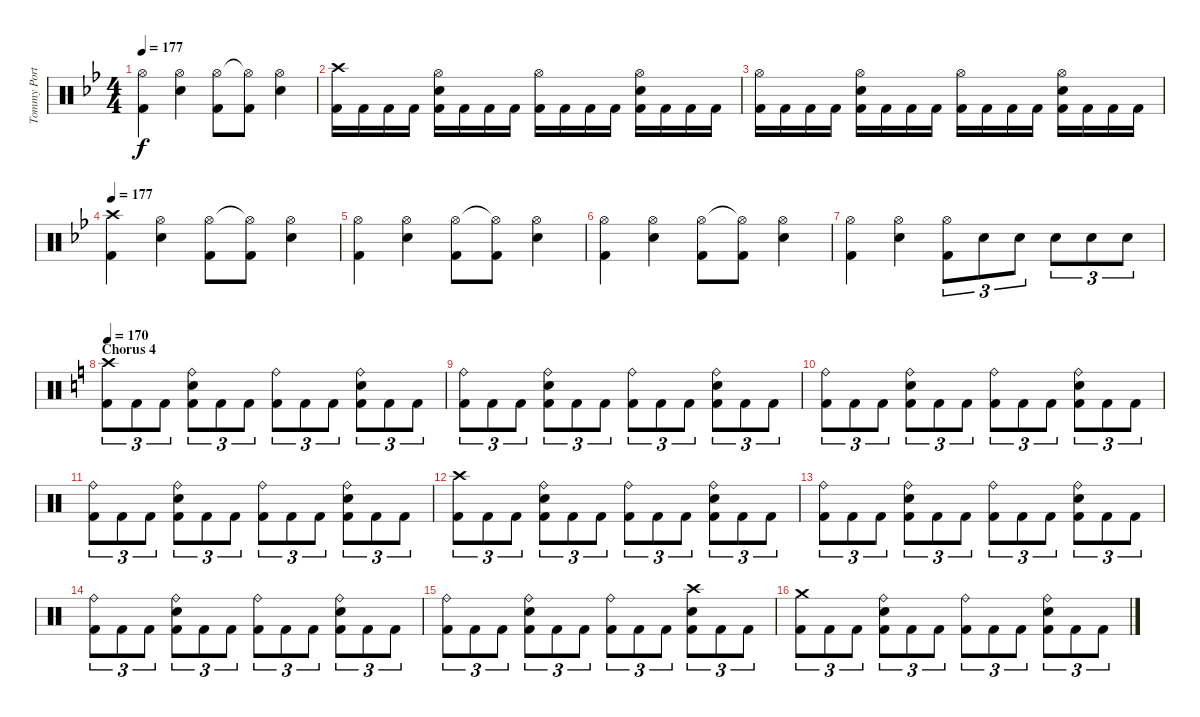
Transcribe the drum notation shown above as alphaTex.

\track ("Tommy Portimo" "Tommy Port") {instrument percussion}
\staff {score}
\articulation defaults
\ts (4 4)
\tempo 177
\clef neutral
\ks gminor
("Hi-Hat (open)" "Kick (hit) 2").4{dy f} ("Hi-Hat (open)" "Snare (hit) 2").4 ("Hi-Hat (open)" "Kick (hit) 2").8 ("Hi-Hat (open)"{t} "Kick (hit) 2").8 ("Hi-Hat (open)" "Snare (hit) 2").4 |
("Crash high (hit)" "Kick (hit) 2").16 "Kick (hit) 2".16 "Kick (hit) 2".16 "Kick (hit) 2".16 ("Hi-Hat (open)" "Snare (hit) 2" "Kick (hit) 2").16 "Kick (hit) 2".16 "Kick (hit) 2".16 "Kick (hit) 2".16 ("Hi-Hat (open)" "Kick (hit) 2").16 "Kick (hit) 2".16 "Kick (hit) 2".16 "Kick (hit) 2".16 ("Hi-Hat (open)" "Snare (hit) 2" "Kick (hit) 2").16 "Kick (hit) 2".16 "Kick (hit) 2".16 "Kick (hit) 2".16 |
("Hi-Hat (open)" "Kick (hit) 2").16 "Kick (hit) 2".16 "Kick (hit) 2".16 "Kick (hit) 2".16 ("Hi-Hat (open)" "Snare (hit) 2" "Kick (hit) 2").16 "Kick (hit) 2".16 "Kick (hit) 2".16 "Kick (hit) 2".16 ("Hi-Hat (open)" "Kick (hit) 2").16 "Kick (hit) 2".16 "Kick (hit) 2".16 "Kick (hit) 2".16 ("Hi-Hat (open)" "Snare (hit) 2" "Kick (hit) 2").16 "Kick (hit) 2".16 "Kick (hit) 2".16 "Kick (hit) 2".16 |
\tempo 177
("Crash high (hit)" "Kick (hit) 2").4 ("Hi-Hat (open)" "Snare (hit) 2").4 ("Hi-Hat (open)" "Kick (hit) 2").8 ("Hi-Hat (open)"{t} "Kick (hit) 2").8 ("Hi-Hat (open)" "Snare (hit) 2").4 |
("Hi-Hat (open)" "Kick (hit) 2").4 ("Hi-Hat (open)" "Snare (hit) 2").4 ("Hi-Hat (open)" "Kick (hit) 2").8 ("Hi-Hat (open)"{t} "Kick (hit) 2").8 ("Hi-Hat (open)" "Snare (hit) 2").4 |
("Hi-Hat (open)" "Kick (hit) 2").4 ("Hi-Hat (open)" "Snare (hit) 2").4 ("Hi-Hat (open)" "Kick (hit) 2").8 ("Hi-Hat (open)"{t} "Kick (hit) 2").8 ("Hi-Hat (open)" "Snare (hit) 2").4 |
("Hi-Hat (open)" "Kick (hit) 2").4 ("Hi-Hat (open)" "Snare (hit) 2").4 ("Hi-Hat (open)" "Kick (hit) 2").8{tu (3 2)} "Snare (hit) 2".8{tu (3 2)} "Snare (hit) 2".8{tu (3 2)} "Snare (hit) 2".8{tu (3 2)} "Snare (hit) 2".8{tu (3 2)} "Snare (hit) 2".8{tu (3 2)} |
\section ("" "Chorus 4")
\tempo 165
\tempo 170
\ks c
("Crash high (hit)" "Kick (hit) 2").8{tu (3 2)} "Kick (hit) 2".8{tu (3 2)} "Kick (hit) 2".8{tu (3 2)} ("Ride (bell)" "Snare (hit) 2" "Kick (hit) 2").8{tu (3 2)} "Kick (hit) 2".8{tu (3 2)} "Kick (hit) 2".8{tu (3 2)} ("Ride (bell)" "Kick (hit) 2").8{tu (3 2)} "Kick (hit) 2".8{tu (3 2)} "Kick (hit) 2".8{tu (3 2)} ("Ride (bell)" "Snare (hit) 2" "Kick (hit) 2").8{tu (3 2)} "Kick (hit) 2".8{tu (3 2)} "Kick (hit) 2".8{tu (3 2)} |
("Ride (bell)" "Kick (hit) 2").8{tu (3 2)} "Kick (hit) 2".8{tu (3 2)} "Kick (hit) 2".8{tu (3 2)} ("Ride (bell)" "Snare (hit) 2" "Kick (hit) 2").8{tu (3 2)} "Kick (hit) 2".8{tu (3 2)} "Kick (hit) 2".8{tu (3 2)} ("Ride (bell)" "Kick (hit) 2").8{tu (3 2)} "Kick (hit) 2".8{tu (3 2)} "Kick (hit) 2".8{tu (3 2)} ("Ride (bell)" "Snare (hit) 2" "Kick (hit) 2").8{tu (3 2)} "Kick (hit) 2".8{tu (3 2)} "Kick (hit) 2".8{tu (3 2)} |
("Ride (bell)" "Kick (hit) 2").8{tu (3 2)} "Kick (hit) 2".8{tu (3 2)} "Kick (hit) 2".8{tu (3 2)} ("Ride (bell)" "Snare (hit) 2" "Kick (hit) 2").8{tu (3 2)} "Kick (hit) 2".8{tu (3 2)} "Kick (hit) 2".8{tu (3 2)} ("Ride (bell)" "Kick (hit) 2").8{tu (3 2)} "Kick (hit) 2".8{tu (3 2)} "Kick (hit) 2".8{tu (3 2)} ("Ride (bell)" "Snare (hit) 2" "Kick (hit) 2").8{tu (3 2)} "Kick (hit) 2".8{tu (3 2)} "Kick (hit) 2".8{tu (3 2)} |
("Ride (bell)" "Kick (hit) 2").8{tu (3 2)} "Kick (hit) 2".8{tu (3 2)} "Kick (hit) 2".8{tu (3 2)} ("Ride (bell)" "Snare (hit) 2" "Kick (hit) 2").8{tu (3 2)} "Kick (hit) 2".8{tu (3 2)} "Kick (hit) 2".8{tu (3 2)} ("Ride (bell)" "Kick (hit) 2").8{tu (3 2)} "Kick (hit) 2".8{tu (3 2)} "Kick (hit) 2".8{tu (3 2)} ("Ride (bell)" "Snare (hit) 2" "Kick (hit) 2").8{tu (3 2)} "Kick (hit) 2".8{tu (3 2)} "Kick (hit) 2".8{tu (3 2)} |
("Crash high (hit)" "Kick (hit) 2").8{tu (3 2)} "Kick (hit) 2".8{tu (3 2)} "Kick (hit) 2".8{tu (3 2)} ("Ride (bell)" "Snare (hit) 2" "Kick (hit) 2").8{tu (3 2)} "Kick (hit) 2".8{tu (3 2)} "Kick (hit) 2".8{tu (3 2)} ("Ride (bell)" "Kick (hit) 2").8{tu (3 2)} "Kick (hit) 2".8{tu (3 2)} "Kick (hit) 2".8{tu (3 2)} ("Ride (bell)" "Snare (hit) 2" "Kick (hit) 2").8{tu (3 2)} "Kick (hit) 2".8{tu (3 2)} "Kick (hit) 2".8{tu (3 2)} |
("Ride (bell)" "Kick (hit) 2").8{tu (3 2)} "Kick (hit) 2".8{tu (3 2)} "Kick (hit) 2".8{tu (3 2)} ("Ride (bell)" "Snare (hit) 2" "Kick (hit) 2").8{tu (3 2)} "Kick (hit) 2".8{tu (3 2)} "Kick (hit) 2".8{tu (3 2)} ("Ride (bell)" "Kick (hit) 2").8{tu (3 2)} "Kick (hit) 2".8{tu (3 2)} "Kick (hit) 2".8{tu (3 2)} ("Ride (bell)" "Snare (hit) 2" "Kick (hit) 2").8{tu (3 2)} "Kick (hit) 2".8{tu (3 2)} "Kick (hit) 2".8{tu (3 2)} |
("Ride (bell)" "Kick (hit) 2").8{tu (3 2)} "Kick (hit) 2".8{tu (3 2)} "Kick (hit) 2".8{tu (3 2)} ("Ride (bell)" "Snare (hit) 2" "Kick (hit) 2").8{tu (3 2)} "Kick (hit) 2".8{tu (3 2)} "Kick (hit) 2".8{tu (3 2)} ("Ride (bell)" "Kick (hit) 2").8{tu (3 2)} "Kick (hit) 2".8{tu (3 2)} "Kick (hit) 2".8{tu (3 2)} ("Ride (bell)" "Snare (hit) 2" "Kick (hit) 2").8{tu (3 2)} "Kick (hit) 2".8{tu (3 2)} "Kick (hit) 2".8{tu (3 2)} |
("Ride (bell)" "Kick (hit) 2").8{tu (3 2)} "Kick (hit) 2".8{tu (3 2)} "Kick (hit) 2".8{tu (3 2)} ("Ride (bell)" "Snare (hit) 2" "Kick (hit) 2").8{tu (3 2)} "Kick (hit) 2".8{tu (3 2)} "Kick (hit) 2".8{tu (3 2)} ("Ride (bell)" "Kick (hit) 2").8{tu (3 2)} "Kick (hit) 2".8{tu (3 2)} "Kick (hit) 2".8{tu (3 2)} ("Crash high (hit)" "Snare (hit) 2" "Kick (hit) 2").8{tu (3 2)} "Kick (hit) 2".8{tu (3 2)} "Kick (hit) 2".8{tu (3 2)} |
("Crash medium (hit)" "Kick (hit) 2").8{tu (3 2)} "Kick (hit) 2".8{tu (3 2)} "Kick (hit) 2".8{tu (3 2)} ("Ride (bell)" "Snare (hit) 2" "Kick (hit) 2").8{tu (3 2)} "Kick (hit) 2".8{tu (3 2)} "Kick (hit) 2".8{tu (3 2)} ("Ride (bell)" "Kick (hit) 2").8{tu (3 2)} "Kick (hit) 2".8{tu (3 2)} "Kick (hit) 2".8{tu (3 2)} ("Ride (bell)" "Snare (hit) 2" "Kick (hit) 2").8{tu (3 2)} "Kick (hit) 2".8{tu (3 2)} "Kick (hit) 2".8{tu (3 2)}
